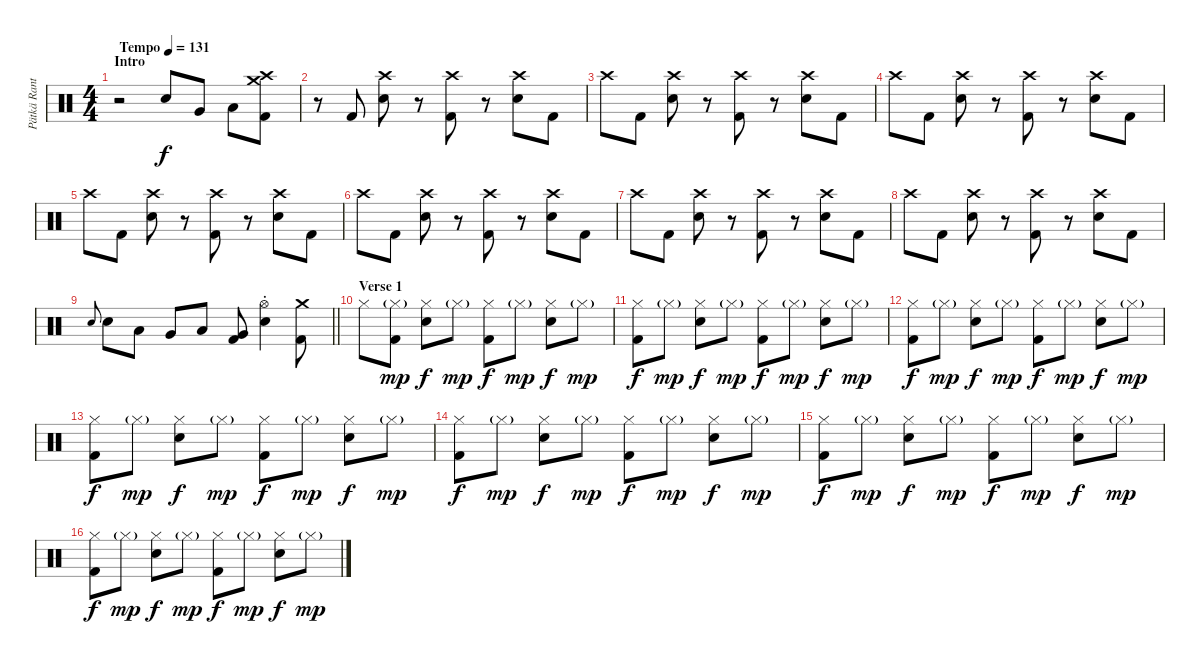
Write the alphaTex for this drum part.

\track ("Pätkä Rantala (Drums)" "Pätkä Rant") {instrument percussion}
\staff {score}
\articulation defaults
\ts (4 4)
\section ("" "Intro")
\tempo (131 "Tempo")
\clef neutral
\ks c
r.2{dy f} "Snare (hit) 2".8 "Very Low Tom (hit)".8 "Low Floor Tom (hit)".8 ("Crash medium (hit)" "Crash high (hit)" "Kick (hit) 2").8 |
r.8 "Kick (hit) 2".8 ("Crash high (hit)" "Snare (hit) 2").8 r.8 ("Crash high (hit)" "Kick (hit) 2").8 r.8 ("Crash high (hit)" "Snare (hit) 2").8 "Kick (hit) 2".8 |
"Crash high (hit)".8 "Kick (hit) 2".8 ("Crash high (hit)" "Snare (hit) 2").8 r.8 ("Crash high (hit)" "Kick (hit) 2").8 r.8 ("Crash high (hit)" "Snare (hit) 2").8 "Kick (hit) 2".8 |
"Crash high (hit)".8 "Kick (hit) 2".8 ("Crash high (hit)" "Snare (hit) 2").8 r.8 ("Crash high (hit)" "Kick (hit) 2").8 r.8 ("Crash high (hit)" "Snare (hit) 2").8 "Kick (hit) 2".8 |
"Crash high (hit)".8 "Kick (hit) 2".8 ("Crash high (hit)" "Snare (hit) 2").8 r.8 ("Crash high (hit)" "Kick (hit) 2").8 r.8 ("Crash high (hit)" "Snare (hit) 2").8 "Kick (hit) 2".8 |
"Crash high (hit)".8 "Kick (hit) 2".8 ("Crash high (hit)" "Snare (hit) 2").8 r.8 ("Crash high (hit)" "Kick (hit) 2").8 r.8 ("Crash high (hit)" "Snare (hit) 2").8 "Kick (hit) 2".8 |
"Crash high (hit)".8 "Kick (hit) 2".8 ("Crash high (hit)" "Snare (hit) 2").8 r.8 ("Crash high (hit)" "Kick (hit) 2").8 r.8 ("Crash high (hit)" "Snare (hit) 2").8 "Kick (hit) 2".8 |
"Crash high (hit)".8 "Kick (hit) 2".8 ("Crash high (hit)" "Snare (hit) 2").8 r.8 ("Crash high (hit)" "Kick (hit) 2").8 r.8 ("Crash high (hit)" "Snare (hit) 2").8 "Kick (hit) 2".8 |
\barLineRight lightlight "Snare (hit) 2".8{gr onbeat} "Snare (hit) 2".8 "Low Tom (hit)".8 "Very Low Tom (hit)".8 "Low Floor Tom (hit)".8
("Very Low Tom (hit)" "Kick (hit) 2").8 ("Hi-Hat (open)"{st} "Snare (hit) 2").4 ("Crash medium (hit)" "Kick (hit) 2").8 |
\section ("" "Verse 1")
"Hi-Hat (closed)".8 ("Hi-Hat (closed)"{g} "Kick (hit) 2").8{dy mp} ("Hi-Hat (closed)" "Snare (hit) 2").8{dy f} "Hi-Hat (closed)"{g}.8{dy mp} ("Hi-Hat (closed)" "Kick (hit) 2").8{dy f} "Hi-Hat (closed)"{g}.8{dy mp} ("Hi-Hat (closed)" "Snare (hit) 2").8{dy f} "Hi-Hat (closed)"{g}.8{dy mp} |
("Hi-Hat (closed)" "Kick (hit) 2").8{dy f} "Hi-Hat (closed)"{g}.8{dy mp} ("Hi-Hat (closed)" "Snare (hit) 2").8{dy f} "Hi-Hat (closed)"{g}.8{dy mp} ("Hi-Hat (closed)" "Kick (hit) 2").8{dy f} "Hi-Hat (closed)"{g}.8{dy mp} ("Hi-Hat (closed)" "Snare (hit) 2").8{dy f} "Hi-Hat (closed)"{g}.8{dy mp} |
("Hi-Hat (closed)" "Kick (hit) 2").8{dy f} "Hi-Hat (closed)"{g}.8{dy mp} ("Hi-Hat (closed)" "Snare (hit) 2").8{dy f} "Hi-Hat (closed)"{g}.8{dy mp} ("Hi-Hat (closed)" "Kick (hit) 2").8{dy f} "Hi-Hat (closed)"{g}.8{dy mp} ("Hi-Hat (closed)" "Snare (hit) 2").8{dy f} "Hi-Hat (closed)"{g}.8{dy mp} |
("Hi-Hat (closed)" "Kick (hit) 2").8{dy f} "Hi-Hat (closed)"{g}.8{dy mp} ("Hi-Hat (closed)" "Snare (hit) 2").8{dy f} "Hi-Hat (closed)"{g}.8{dy mp} ("Hi-Hat (closed)" "Kick (hit) 2").8{dy f} "Hi-Hat (closed)"{g}.8{dy mp} ("Hi-Hat (closed)" "Snare (hit) 2").8{dy f} "Hi-Hat (closed)"{g}.8{dy mp} |
("Hi-Hat (closed)" "Kick (hit) 2").8{dy f} "Hi-Hat (closed)"{g}.8{dy mp} ("Hi-Hat (closed)" "Snare (hit) 2").8{dy f} "Hi-Hat (closed)"{g}.8{dy mp} ("Hi-Hat (closed)" "Kick (hit) 2").8{dy f} "Hi-Hat (closed)"{g}.8{dy mp} ("Hi-Hat (closed)" "Snare (hit) 2").8{dy f} "Hi-Hat (closed)"{g}.8{dy mp} |
("Hi-Hat (closed)" "Kick (hit) 2").8{dy f} "Hi-Hat (closed)"{g}.8{dy mp} ("Hi-Hat (closed)" "Snare (hit) 2").8{dy f} "Hi-Hat (closed)"{g}.8{dy mp} ("Hi-Hat (closed)" "Kick (hit) 2").8{dy f} "Hi-Hat (closed)"{g}.8{dy mp} ("Hi-Hat (closed)" "Snare (hit) 2").8{dy f} "Hi-Hat (closed)"{g}.8{dy mp} |
("Hi-Hat (closed)" "Kick (hit) 2").8{dy f} "Hi-Hat (closed)"{g}.8{dy mp} ("Hi-Hat (closed)" "Snare (hit) 2").8{dy f} "Hi-Hat (closed)"{g}.8{dy mp} ("Hi-Hat (closed)" "Kick (hit) 2").8{dy f} "Hi-Hat (closed)"{g}.8{dy mp} ("Hi-Hat (closed)" "Snare (hit) 2").8{dy f} "Hi-Hat (closed)"{g}.8{dy mp}
